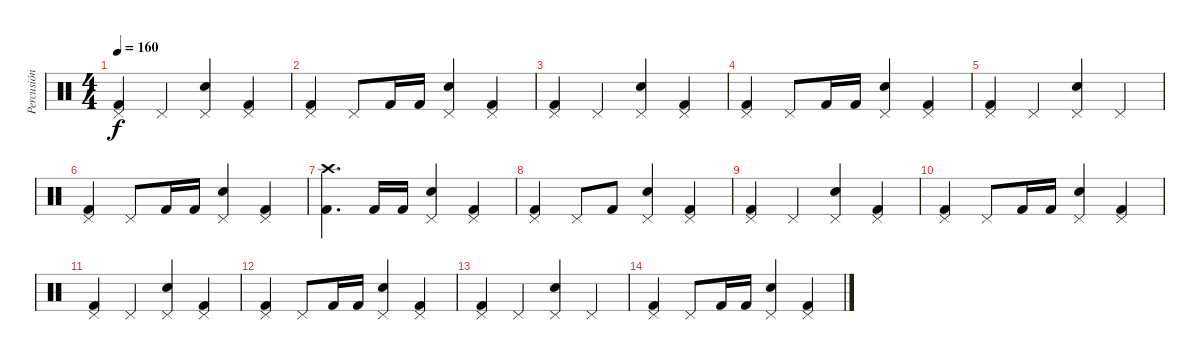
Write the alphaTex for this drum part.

\track ("Percusión" "Percusión") {instrument percussion}
\staff {score}
\articulation defaults
\ts (4 4)
\tempo 160
\clef neutral
\ks c
("Pedal Hi-Hat (hit)" "Kick (hit) 2").4{dy f} "Pedal Hi-Hat (hit)".4 ("Pedal Hi-Hat (hit)" "Snare (hit) 2").4 ("Pedal Hi-Hat (hit)" "Kick (hit) 2").4 |
("Pedal Hi-Hat (hit)" "Kick (hit) 2").4 "Pedal Hi-Hat (hit)".8 "Kick (hit) 2".16 "Kick (hit) 2".16 ("Pedal Hi-Hat (hit)" "Snare (hit) 2").4 ("Pedal Hi-Hat (hit)" "Kick (hit) 2").4 |
("Pedal Hi-Hat (hit)" "Kick (hit) 2").4 "Pedal Hi-Hat (hit)".4 ("Pedal Hi-Hat (hit)" "Snare (hit) 2").4 ("Pedal Hi-Hat (hit)" "Kick (hit) 2").4 |
("Pedal Hi-Hat (hit)" "Kick (hit) 2").4 "Pedal Hi-Hat (hit)".8 "Kick (hit) 2".16 "Kick (hit) 2".16 ("Pedal Hi-Hat (hit)" "Snare (hit) 2").4 ("Pedal Hi-Hat (hit)" "Kick (hit) 2").4 |
("Pedal Hi-Hat (hit)" "Kick (hit) 2").4 "Pedal Hi-Hat (hit)".4 ("Pedal Hi-Hat (hit)" "Snare (hit) 2").4 "Pedal Hi-Hat (hit)".4 |
("Pedal Hi-Hat (hit)" "Kick (hit) 2").4 "Pedal Hi-Hat (hit)".8 "Kick (hit) 2".16 "Kick (hit) 2".16 ("Pedal Hi-Hat (hit)" "Snare (hit) 2").4 ("Pedal Hi-Hat (hit)" "Kick (hit) 2").4 |
("Crash high (hit)" "Kick (hit) 2").4{d} "Kick (hit) 2".16 "Kick (hit) 2".16 ("Pedal Hi-Hat (hit)" "Snare (hit) 2").4 ("Pedal Hi-Hat (hit)" "Kick (hit) 2").4 |
("Pedal Hi-Hat (hit)" "Kick (hit) 2").4 "Pedal Hi-Hat (hit)".8 "Kick (hit) 2".8 ("Pedal Hi-Hat (hit)" "Snare (hit) 2").4 ("Pedal Hi-Hat (hit)" "Kick (hit) 2").4 |
("Pedal Hi-Hat (hit)" "Kick (hit) 2").4 "Pedal Hi-Hat (hit)".4 ("Pedal Hi-Hat (hit)" "Snare (hit) 2").4 ("Pedal Hi-Hat (hit)" "Kick (hit) 2").4 |
("Pedal Hi-Hat (hit)" "Kick (hit) 2").4 "Pedal Hi-Hat (hit)".8 "Kick (hit) 2".16 "Kick (hit) 2".16 ("Pedal Hi-Hat (hit)" "Snare (hit) 2").4 ("Pedal Hi-Hat (hit)" "Kick (hit) 2").4 |
("Pedal Hi-Hat (hit)" "Kick (hit) 2").4 "Pedal Hi-Hat (hit)".4 ("Pedal Hi-Hat (hit)" "Snare (hit) 2").4 ("Pedal Hi-Hat (hit)" "Kick (hit) 2").4 |
("Pedal Hi-Hat (hit)" "Kick (hit) 2").4 "Pedal Hi-Hat (hit)".8 "Kick (hit) 2".16 "Kick (hit) 2".16 ("Pedal Hi-Hat (hit)" "Snare (hit) 2").4 ("Pedal Hi-Hat (hit)" "Kick (hit) 2").4 |
("Pedal Hi-Hat (hit)" "Kick (hit) 2").4 "Pedal Hi-Hat (hit)".4 ("Pedal Hi-Hat (hit)" "Snare (hit) 2").4 "Pedal Hi-Hat (hit)".4 |
("Pedal Hi-Hat (hit)" "Kick (hit) 2").4 "Pedal Hi-Hat (hit)".8 "Kick (hit) 2".16 "Kick (hit) 2".16 ("Pedal Hi-Hat (hit)" "Snare (hit) 2").4 ("Pedal Hi-Hat (hit)" "Kick (hit) 2").4
